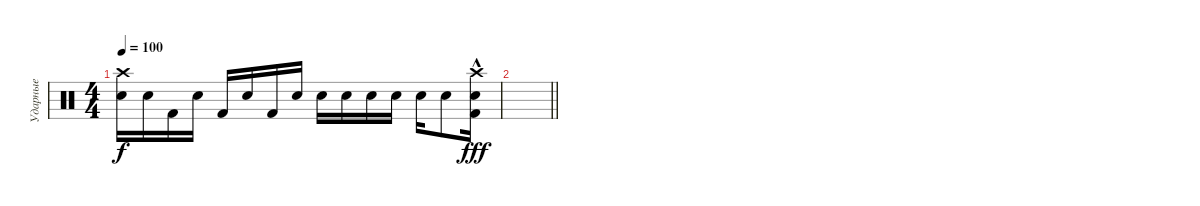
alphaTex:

\track ("Ударные" "Ударные") {instrument percussion}
\staff {score}
\articulation defaults
\ts (4 4)
\tempo 100
\clef neutral
\ks c
("Crash high (hit)" "Snare (hit) 2").16{dy f} "Snare (hit) 2".16 "Kick (hit) 2".16 "Snare (hit) 2".16 "Kick (hit) 2".16 "Snare (hit) 2".16 "Kick (hit) 2".16 "Snare (hit) 2".16 "Snare (hit) 2".16 "Snare (hit) 2".16 "Snare (hit) 2".16 "Snare (hit) 2".16 "Snare (hit) 2".16 "Snare (hit) 2".8 ("Crash high (hit)"{hac} "Snare (hit) 2"{hac} "Kick (hit) 2"{hac}).16{dy fff} |
\barLineRight lightlight
